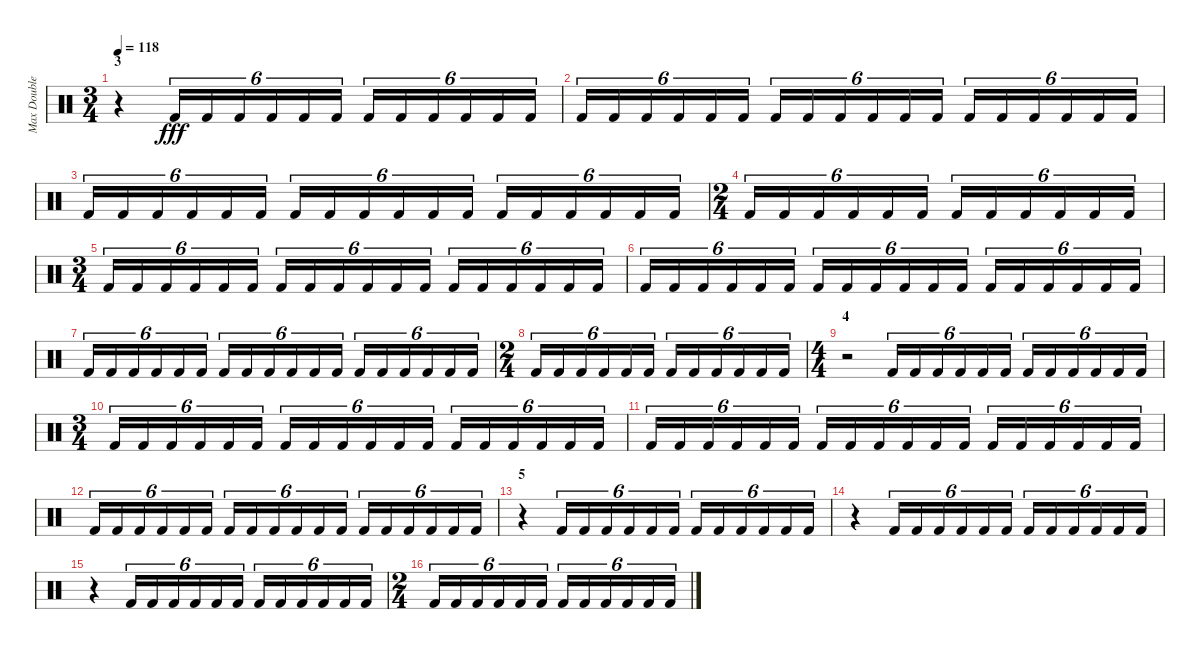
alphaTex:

\track ("Max Double Pedal" "Max Double") {instrument percussion}
\staff {score}
\articulation defaults
\ts (3 4)
\section ("" "3")
\tempo 118
\clef neutral
\ks c
r.4{dy fff} "Kick (hit) 2".16{tu (6 4)} "Kick (hit) 2".16{tu (6 4)} "Kick (hit) 2".16{tu (6 4)} "Kick (hit) 2".16{tu (6 4)} "Kick (hit) 2".16{tu (6 4)} "Kick (hit) 2".16{tu (6 4)} "Kick (hit) 2".16{tu (6 4)} "Kick (hit) 2".16{tu (6 4)} "Kick (hit) 2".16{tu (6 4)} "Kick (hit) 2".16{tu (6 4)} "Kick (hit) 2".16{tu (6 4)} "Kick (hit) 2".16{tu (6 4)} |
"Kick (hit) 2".16{tu (6 4)} "Kick (hit) 2".16{tu (6 4)} "Kick (hit) 2".16{tu (6 4)} "Kick (hit) 2".16{tu (6 4)} "Kick (hit) 2".16{tu (6 4)} "Kick (hit) 2".16{tu (6 4)} "Kick (hit) 2".16{tu (6 4)} "Kick (hit) 2".16{tu (6 4)} "Kick (hit) 2".16{tu (6 4)} "Kick (hit) 2".16{tu (6 4)} "Kick (hit) 2".16{tu (6 4)} "Kick (hit) 2".16{tu (6 4)} "Kick (hit) 2".16{tu (6 4)} "Kick (hit) 2".16{tu (6 4)} "Kick (hit) 2".16{tu (6 4)} "Kick (hit) 2".16{tu (6 4)} "Kick (hit) 2".16{tu (6 4)} "Kick (hit) 2".16{tu (6 4)} |
"Kick (hit) 2".16{tu (6 4)} "Kick (hit) 2".16{tu (6 4)} "Kick (hit) 2".16{tu (6 4)} "Kick (hit) 2".16{tu (6 4)} "Kick (hit) 2".16{tu (6 4)} "Kick (hit) 2".16{tu (6 4)} "Kick (hit) 2".16{tu (6 4)} "Kick (hit) 2".16{tu (6 4)} "Kick (hit) 2".16{tu (6 4)} "Kick (hit) 2".16{tu (6 4)} "Kick (hit) 2".16{tu (6 4)} "Kick (hit) 2".16{tu (6 4)} "Kick (hit) 2".16{tu (6 4)} "Kick (hit) 2".16{tu (6 4)} "Kick (hit) 2".16{tu (6 4)} "Kick (hit) 2".16{tu (6 4)} "Kick (hit) 2".16{tu (6 4)} "Kick (hit) 2".16{tu (6 4)} |
\ts (2 4)
"Kick (hit) 2".16{tu (6 4)} "Kick (hit) 2".16{tu (6 4)} "Kick (hit) 2".16{tu (6 4)} "Kick (hit) 2".16{tu (6 4)} "Kick (hit) 2".16{tu (6 4)} "Kick (hit) 2".16{tu (6 4)} "Kick (hit) 2".16{tu (6 4)} "Kick (hit) 2".16{tu (6 4)} "Kick (hit) 2".16{tu (6 4)} "Kick (hit) 2".16{tu (6 4)} "Kick (hit) 2".16{tu (6 4)} "Kick (hit) 2".16{tu (6 4)} |
\ts (3 4)
"Kick (hit) 2".16{tu (6 4)} "Kick (hit) 2".16{tu (6 4)} "Kick (hit) 2".16{tu (6 4)} "Kick (hit) 2".16{tu (6 4)} "Kick (hit) 2".16{tu (6 4)} "Kick (hit) 2".16{tu (6 4)} "Kick (hit) 2".16{tu (6 4)} "Kick (hit) 2".16{tu (6 4)} "Kick (hit) 2".16{tu (6 4)} "Kick (hit) 2".16{tu (6 4)} "Kick (hit) 2".16{tu (6 4)} "Kick (hit) 2".16{tu (6 4)} "Kick (hit) 2".16{tu (6 4)} "Kick (hit) 2".16{tu (6 4)} "Kick (hit) 2".16{tu (6 4)} "Kick (hit) 2".16{tu (6 4)} "Kick (hit) 2".16{tu (6 4)} "Kick (hit) 2".16{tu (6 4)} |
"Kick (hit) 2".16{tu (6 4)} "Kick (hit) 2".16{tu (6 4)} "Kick (hit) 2".16{tu (6 4)} "Kick (hit) 2".16{tu (6 4)} "Kick (hit) 2".16{tu (6 4)} "Kick (hit) 2".16{tu (6 4)} "Kick (hit) 2".16{tu (6 4)} "Kick (hit) 2".16{tu (6 4)} "Kick (hit) 2".16{tu (6 4)} "Kick (hit) 2".16{tu (6 4)} "Kick (hit) 2".16{tu (6 4)} "Kick (hit) 2".16{tu (6 4)} "Kick (hit) 2".16{tu (6 4)} "Kick (hit) 2".16{tu (6 4)} "Kick (hit) 2".16{tu (6 4)} "Kick (hit) 2".16{tu (6 4)} "Kick (hit) 2".16{tu (6 4)} "Kick (hit) 2".16{tu (6 4)} |
"Kick (hit) 2".16{tu (6 4)} "Kick (hit) 2".16{tu (6 4)} "Kick (hit) 2".16{tu (6 4)} "Kick (hit) 2".16{tu (6 4)} "Kick (hit) 2".16{tu (6 4)} "Kick (hit) 2".16{tu (6 4)} "Kick (hit) 2".16{tu (6 4)} "Kick (hit) 2".16{tu (6 4)} "Kick (hit) 2".16{tu (6 4)} "Kick (hit) 2".16{tu (6 4)} "Kick (hit) 2".16{tu (6 4)} "Kick (hit) 2".16{tu (6 4)} "Kick (hit) 2".16{tu (6 4)} "Kick (hit) 2".16{tu (6 4)} "Kick (hit) 2".16{tu (6 4)} "Kick (hit) 2".16{tu (6 4)} "Kick (hit) 2".16{tu (6 4)} "Kick (hit) 2".16{tu (6 4)} |
\ts (2 4)
"Kick (hit) 2".16{tu (6 4)} "Kick (hit) 2".16{tu (6 4)} "Kick (hit) 2".16{tu (6 4)} "Kick (hit) 2".16{tu (6 4)} "Kick (hit) 2".16{tu (6 4)} "Kick (hit) 2".16{tu (6 4)} "Kick (hit) 2".16{tu (6 4)} "Kick (hit) 2".16{tu (6 4)} "Kick (hit) 2".16{tu (6 4)} "Kick (hit) 2".16{tu (6 4)} "Kick (hit) 2".16{tu (6 4)} "Kick (hit) 2".16{tu (6 4)} |
\ts (4 4)
\section ("" "4")
r.2 "Kick (hit) 2".16{tu (6 4)} "Kick (hit) 2".16{tu (6 4)} "Kick (hit) 2".16{tu (6 4)} "Kick (hit) 2".16{tu (6 4)} "Kick (hit) 2".16{tu (6 4)} "Kick (hit) 2".16{tu (6 4)} "Kick (hit) 2".16{tu (6 4)} "Kick (hit) 2".16{tu (6 4)} "Kick (hit) 2".16{tu (6 4)} "Kick (hit) 2".16{tu (6 4)} "Kick (hit) 2".16{tu (6 4)} "Kick (hit) 2".16{tu (6 4)} |
\ts (3 4)
"Kick (hit) 2".16{tu (6 4)} "Kick (hit) 2".16{tu (6 4)} "Kick (hit) 2".16{tu (6 4)} "Kick (hit) 2".16{tu (6 4)} "Kick (hit) 2".16{tu (6 4)} "Kick (hit) 2".16{tu (6 4)} "Kick (hit) 2".16{tu (6 4)} "Kick (hit) 2".16{tu (6 4)} "Kick (hit) 2".16{tu (6 4)} "Kick (hit) 2".16{tu (6 4)} "Kick (hit) 2".16{tu (6 4)} "Kick (hit) 2".16{tu (6 4)} "Kick (hit) 2".16{tu (6 4)} "Kick (hit) 2".16{tu (6 4)} "Kick (hit) 2".16{tu (6 4)} "Kick (hit) 2".16{tu (6 4)} "Kick (hit) 2".16{tu (6 4)} "Kick (hit) 2".16{tu (6 4)} |
"Kick (hit) 2".16{tu (6 4)} "Kick (hit) 2".16{tu (6 4)} "Kick (hit) 2".16{tu (6 4)} "Kick (hit) 2".16{tu (6 4)} "Kick (hit) 2".16{tu (6 4)} "Kick (hit) 2".16{tu (6 4)} "Kick (hit) 2".16{tu (6 4)} "Kick (hit) 2".16{tu (6 4)} "Kick (hit) 2".16{tu (6 4)} "Kick (hit) 2".16{tu (6 4)} "Kick (hit) 2".16{tu (6 4)} "Kick (hit) 2".16{tu (6 4)} "Kick (hit) 2".16{tu (6 4)} "Kick (hit) 2".16{tu (6 4)} "Kick (hit) 2".16{tu (6 4)} "Kick (hit) 2".16{tu (6 4)} "Kick (hit) 2".16{tu (6 4)} "Kick (hit) 2".16{tu (6 4)} |
"Kick (hit) 2".16{tu (6 4)} "Kick (hit) 2".16{tu (6 4)} "Kick (hit) 2".16{tu (6 4)} "Kick (hit) 2".16{tu (6 4)} "Kick (hit) 2".16{tu (6 4)} "Kick (hit) 2".16{tu (6 4)} "Kick (hit) 2".16{tu (6 4)} "Kick (hit) 2".16{tu (6 4)} "Kick (hit) 2".16{tu (6 4)} "Kick (hit) 2".16{tu (6 4)} "Kick (hit) 2".16{tu (6 4)} "Kick (hit) 2".16{tu (6 4)} "Kick (hit) 2".16{tu (6 4)} "Kick (hit) 2".16{tu (6 4)} "Kick (hit) 2".16{tu (6 4)} "Kick (hit) 2".16{tu (6 4)} "Kick (hit) 2".16{tu (6 4)} "Kick (hit) 2".16{tu (6 4)} |
\section ("" "5")
r.4 "Kick (hit) 2".16{tu (6 4)} "Kick (hit) 2".16{tu (6 4)} "Kick (hit) 2".16{tu (6 4)} "Kick (hit) 2".16{tu (6 4)} "Kick (hit) 2".16{tu (6 4)} "Kick (hit) 2".16{tu (6 4)} "Kick (hit) 2".16{tu (6 4)} "Kick (hit) 2".16{tu (6 4)} "Kick (hit) 2".16{tu (6 4)} "Kick (hit) 2".16{tu (6 4)} "Kick (hit) 2".16{tu (6 4)} "Kick (hit) 2".16{tu (6 4)} |
r.4 "Kick (hit) 2".16{tu (6 4)} "Kick (hit) 2".16{tu (6 4)} "Kick (hit) 2".16{tu (6 4)} "Kick (hit) 2".16{tu (6 4)} "Kick (hit) 2".16{tu (6 4)} "Kick (hit) 2".16{tu (6 4)} "Kick (hit) 2".16{tu (6 4)} "Kick (hit) 2".16{tu (6 4)} "Kick (hit) 2".16{tu (6 4)} "Kick (hit) 2".16{tu (6 4)} "Kick (hit) 2".16{tu (6 4)} "Kick (hit) 2".16{tu (6 4)} |
r.4 "Kick (hit) 2".16{tu (6 4)} "Kick (hit) 2".16{tu (6 4)} "Kick (hit) 2".16{tu (6 4)} "Kick (hit) 2".16{tu (6 4)} "Kick (hit) 2".16{tu (6 4)} "Kick (hit) 2".16{tu (6 4)} "Kick (hit) 2".16{tu (6 4)} "Kick (hit) 2".16{tu (6 4)} "Kick (hit) 2".16{tu (6 4)} "Kick (hit) 2".16{tu (6 4)} "Kick (hit) 2".16{tu (6 4)} "Kick (hit) 2".16{tu (6 4)} |
\ts (2 4)
"Kick (hit) 2".16{tu (6 4)} "Kick (hit) 2".16{tu (6 4)} "Kick (hit) 2".16{tu (6 4)} "Kick (hit) 2".16{tu (6 4)} "Kick (hit) 2".16{tu (6 4)} "Kick (hit) 2".16{tu (6 4)} "Kick (hit) 2".16{tu (6 4)} "Kick (hit) 2".16{tu (6 4)} "Kick (hit) 2".16{tu (6 4)} "Kick (hit) 2".16{tu (6 4)} "Kick (hit) 2".16{tu (6 4)} "Kick (hit) 2".16{tu (6 4)}
